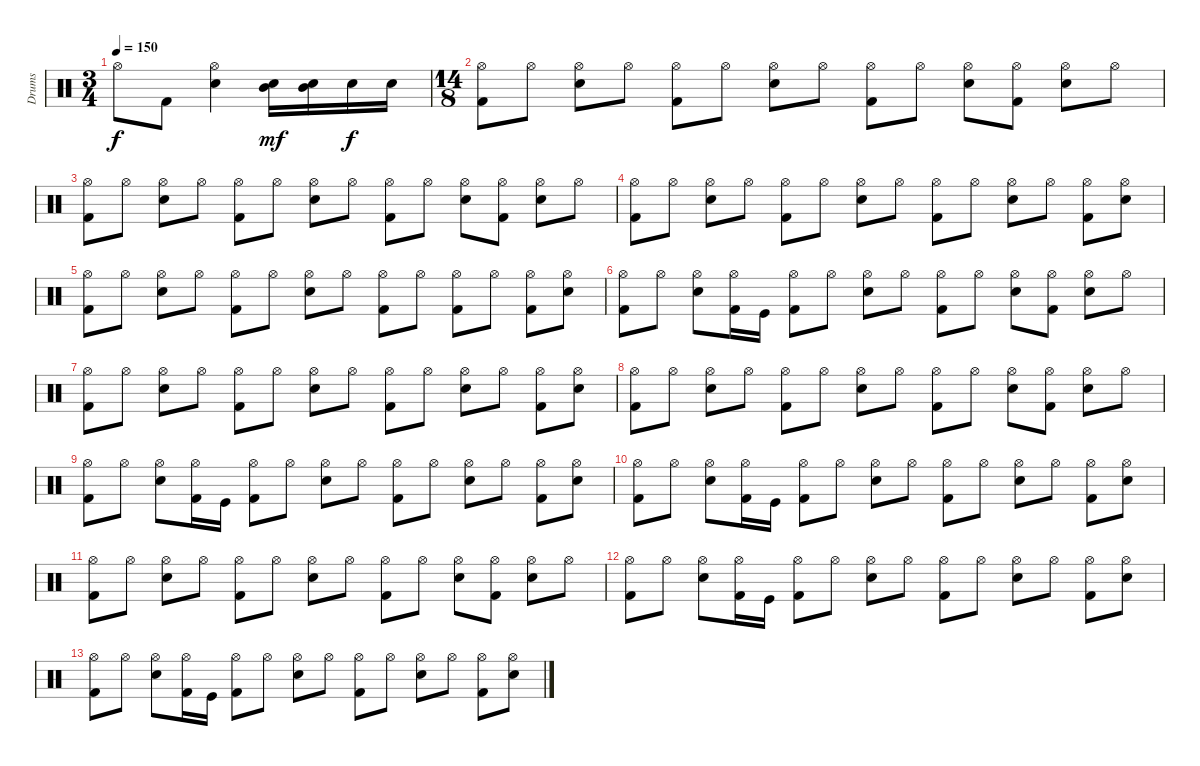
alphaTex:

\track ("Drums" "Drums") {instrument percussion}
\staff {score}
\articulation defaults
\ts (3 4)
\tempo 150
\clef neutral
\ks c "Hi-Hat (open)".8{dy f} "Kick (hit) 2".8
("Hi-Hat (open)" "Electric Snare (hit)").4 ("Mid Tom (hit)" "Electric Snare (hit)").16{dy mf} ("Mid Tom (hit)" "Electric Snare (hit)").16 "Electric Snare (hit)".16{dy f} "Electric Snare (hit)".16 |
\ts (14 8)
("Hi-Hat (open)" "Kick (hit) 2").8 "Hi-Hat (open)".8 ("Hi-Hat (open)" "Electric Snare (hit)").8 "Hi-Hat (open)".8 ("Hi-Hat (open)" "Kick (hit) 2").8 "Hi-Hat (open)".8 ("Hi-Hat (open)" "Electric Snare (hit)").8 "Hi-Hat (open)".8 ("Hi-Hat (open)" "Kick (hit) 2").8 "Hi-Hat (open)".8 ("Hi-Hat (open)" "Electric Snare (hit)").8 ("Hi-Hat (open)" "Kick (hit) 2").8 ("Hi-Hat (open)" "Electric Snare (hit)").8 "Hi-Hat (open)".8 |
("Hi-Hat (open)" "Kick (hit) 2").8 "Hi-Hat (open)".8 ("Hi-Hat (open)" "Electric Snare (hit)").8 "Hi-Hat (open)".8 ("Hi-Hat (open)" "Kick (hit) 2").8 "Hi-Hat (open)".8 ("Hi-Hat (open)" "Electric Snare (hit)").8 "Hi-Hat (open)".8 ("Hi-Hat (open)" "Kick (hit) 2").8 "Hi-Hat (open)".8 ("Hi-Hat (open)" "Electric Snare (hit)").8 ("Hi-Hat (open)" "Kick (hit) 2").8 ("Hi-Hat (open)" "Electric Snare (hit)").8 "Hi-Hat (open)".8 |
("Hi-Hat (open)" "Kick (hit) 2").8 "Hi-Hat (open)".8 ("Hi-Hat (open)" "Electric Snare (hit)").8 "Hi-Hat (open)".8 ("Hi-Hat (open)" "Kick (hit) 2").8 "Hi-Hat (open)".8 ("Hi-Hat (open)" "Electric Snare (hit)").8 "Hi-Hat (open)".8 ("Hi-Hat (open)" "Kick (hit) 2").8 "Hi-Hat (open)".8 ("Hi-Hat (open)" "Electric Snare (hit)").8 "Hi-Hat (open)".8 ("Hi-Hat (open)" "Kick (hit) 2").8 ("Hi-Hat (open)" "Electric Snare (hit)").8 |
("Hi-Hat (open)" "Kick (hit) 2").8{volume 11} "Hi-Hat (open)".8 ("Hi-Hat (open)" "Electric Snare (hit)").8 "Hi-Hat (open)".8 ("Hi-Hat (open)" "Kick (hit) 2").8 "Hi-Hat (open)".8 ("Hi-Hat (open)" "Electric Snare (hit)").8 "Hi-Hat (open)".8 ("Hi-Hat (open)" "Kick (hit) 2").8 "Hi-Hat (open)".8 ("Hi-Hat (open)" "Kick (hit) 2").8 "Hi-Hat (open)".8 ("Hi-Hat (open)" "Kick (hit) 2").8 ("Hi-Hat (open)" "Electric Snare (hit)").8 |
("Hi-Hat (open)" "Kick (hit) 2").8 "Hi-Hat (open)".8 ("Hi-Hat (open)" "Electric Snare (hit)").8 ("Hi-Hat (open)" "Kick (hit) 2").16 "Kick (hit)".16 ("Hi-Hat (open)" "Kick (hit) 2").8 "Hi-Hat (open)".8 ("Hi-Hat (open)" "Electric Snare (hit)").8 "Hi-Hat (open)".8 ("Hi-Hat (open)" "Kick (hit) 2").8 "Hi-Hat (open)".8 ("Hi-Hat (open)" "Electric Snare (hit)").8 ("Hi-Hat (open)" "Kick (hit) 2").8 ("Hi-Hat (open)" "Electric Snare (hit)").8 "Hi-Hat (open)".8 |
("Hi-Hat (open)" "Kick (hit) 2").8{volume 9} "Hi-Hat (open)".8 ("Hi-Hat (open)" "Electric Snare (hit)").8 "Hi-Hat (open)".8 ("Hi-Hat (open)" "Kick (hit) 2").8 "Hi-Hat (open)".8 ("Hi-Hat (open)" "Electric Snare (hit)").8 "Hi-Hat (open)".8 ("Hi-Hat (open)" "Kick (hit) 2").8 "Hi-Hat (open)".8 ("Hi-Hat (open)" "Electric Snare (hit)").8 "Hi-Hat (open)".8 ("Hi-Hat (open)" "Kick (hit) 2").8 ("Hi-Hat (open)" "Electric Snare (hit)").8 |
("Hi-Hat (open)" "Kick (hit) 2").8 "Hi-Hat (open)".8 ("Hi-Hat (open)" "Electric Snare (hit)").8 "Hi-Hat (open)".8 ("Hi-Hat (open)" "Kick (hit) 2").8 "Hi-Hat (open)".8 ("Hi-Hat (open)" "Electric Snare (hit)").8 "Hi-Hat (open)".8 ("Hi-Hat (open)" "Kick (hit) 2").8 "Hi-Hat (open)".8 ("Hi-Hat (open)" "Electric Snare (hit)").8 ("Hi-Hat (open)" "Kick (hit) 2").8 ("Hi-Hat (open)" "Electric Snare (hit)").8 "Hi-Hat (open)".8 |
("Hi-Hat (open)" "Kick (hit) 2").8{volume 7} "Hi-Hat (open)".8 ("Hi-Hat (open)" "Electric Snare (hit)").8 ("Hi-Hat (open)" "Kick (hit) 2").16 "Kick (hit)".16 ("Hi-Hat (open)" "Kick (hit) 2").8 "Hi-Hat (open)".8 ("Hi-Hat (open)" "Electric Snare (hit)").8 "Hi-Hat (open)".8 ("Hi-Hat (open)" "Kick (hit) 2").8 "Hi-Hat (open)".8 ("Hi-Hat (open)" "Electric Snare (hit)").8 "Hi-Hat (open)".8 ("Hi-Hat (open)" "Kick (hit) 2").8 ("Hi-Hat (open)" "Electric Snare (hit)").8 |
("Hi-Hat (open)" "Kick (hit) 2").8 "Hi-Hat (open)".8 ("Hi-Hat (open)" "Electric Snare (hit)").8 ("Hi-Hat (open)" "Kick (hit) 2").16 "Kick (hit)".16 ("Hi-Hat (open)" "Kick (hit) 2").8 "Hi-Hat (open)".8 ("Hi-Hat (open)" "Electric Snare (hit)").8 "Hi-Hat (open)".8 ("Hi-Hat (open)" "Kick (hit) 2").8 "Hi-Hat (open)".8 ("Hi-Hat (open)" "Electric Snare (hit)").8 "Hi-Hat (open)".8 ("Hi-Hat (open)" "Kick (hit) 2").8 ("Hi-Hat (open)" "Electric Snare (hit)").8 |
("Hi-Hat (open)" "Kick (hit) 2").8{volume 4} "Hi-Hat (open)".8 ("Hi-Hat (open)" "Electric Snare (hit)").8 "Hi-Hat (open)".8 ("Hi-Hat (open)" "Kick (hit) 2").8 "Hi-Hat (open)".8 ("Hi-Hat (open)" "Electric Snare (hit)").8 "Hi-Hat (open)".8 ("Hi-Hat (open)" "Kick (hit) 2").8 "Hi-Hat (open)".8 ("Hi-Hat (open)" "Electric Snare (hit)").8 ("Hi-Hat (open)" "Kick (hit) 2").8 ("Hi-Hat (open)" "Electric Snare (hit)").8 "Hi-Hat (open)".8 |
("Hi-Hat (open)" "Kick (hit) 2").8{volume 3} "Hi-Hat (open)".8 ("Hi-Hat (open)" "Electric Snare (hit)").8 ("Hi-Hat (open)" "Kick (hit) 2").16 "Kick (hit)".16 ("Hi-Hat (open)" "Kick (hit) 2").8 "Hi-Hat (open)".8 ("Hi-Hat (open)" "Electric Snare (hit)").8 "Hi-Hat (open)".8 ("Hi-Hat (open)" "Kick (hit) 2").8 "Hi-Hat (open)".8 ("Hi-Hat (open)" "Electric Snare (hit)").8 "Hi-Hat (open)".8 ("Hi-Hat (open)" "Kick (hit) 2").8 ("Hi-Hat (open)" "Electric Snare (hit)").8 |
("Hi-Hat (open)" "Kick (hit) 2").8{volume 0} "Hi-Hat (open)".8 ("Hi-Hat (open)" "Electric Snare (hit)").8 ("Hi-Hat (open)" "Kick (hit) 2").16 "Kick (hit)".16 ("Hi-Hat (open)" "Kick (hit) 2").8 "Hi-Hat (open)".8 ("Hi-Hat (open)" "Electric Snare (hit)").8 "Hi-Hat (open)".8 ("Hi-Hat (open)" "Kick (hit) 2").8 "Hi-Hat (open)".8 ("Hi-Hat (open)" "Electric Snare (hit)").8 "Hi-Hat (open)".8 ("Hi-Hat (open)" "Kick (hit) 2").8 ("Hi-Hat (open)" "Electric Snare (hit)").8
